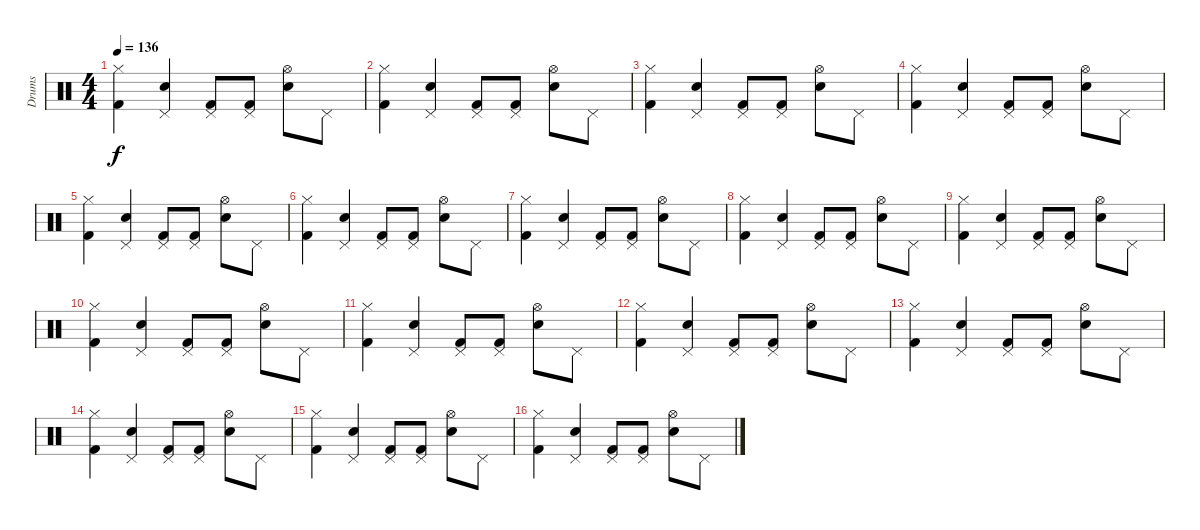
\track ("Drums" "Drums") {instrument percussion}
\staff {score}
\articulation defaults
\ts (4 4)
\tempo 136
\clef neutral
\ks c
("Hi-Hat (closed)" "Kick (hit) 2").4{dy f} ("Snare (hit) 2" "Pedal Hi-Hat (hit)").4 ("Pedal Hi-Hat (hit)" "Kick (hit) 2").8 ("Pedal Hi-Hat (hit)" "Kick (hit) 2").8 ("Snare (hit) 2" "Hi-Hat (open)").8 "Pedal Hi-Hat (hit)".8 |
("Hi-Hat (closed)" "Kick (hit) 2").4 ("Snare (hit) 2" "Pedal Hi-Hat (hit)").4 ("Pedal Hi-Hat (hit)" "Kick (hit) 2").8 ("Pedal Hi-Hat (hit)" "Kick (hit) 2").8 ("Snare (hit) 2" "Hi-Hat (open)").8 "Pedal Hi-Hat (hit)".8 |
("Hi-Hat (closed)" "Kick (hit) 2").4 ("Snare (hit) 2" "Pedal Hi-Hat (hit)").4 ("Pedal Hi-Hat (hit)" "Kick (hit) 2").8 ("Pedal Hi-Hat (hit)" "Kick (hit) 2").8 ("Snare (hit) 2" "Hi-Hat (open)").8 "Pedal Hi-Hat (hit)".8 |
("Hi-Hat (closed)" "Kick (hit) 2").4 ("Snare (hit) 2" "Pedal Hi-Hat (hit)").4 ("Pedal Hi-Hat (hit)" "Kick (hit) 2").8 ("Pedal Hi-Hat (hit)" "Kick (hit) 2").8 ("Snare (hit) 2" "Hi-Hat (open)").8 "Pedal Hi-Hat (hit)".8 |
("Hi-Hat (closed)" "Kick (hit) 2").4 ("Snare (hit) 2" "Pedal Hi-Hat (hit)").4 ("Pedal Hi-Hat (hit)" "Kick (hit) 2").8 ("Pedal Hi-Hat (hit)" "Kick (hit) 2").8 ("Snare (hit) 2" "Hi-Hat (open)").8 "Pedal Hi-Hat (hit)".8 |
("Hi-Hat (closed)" "Kick (hit) 2").4 ("Snare (hit) 2" "Pedal Hi-Hat (hit)").4 ("Pedal Hi-Hat (hit)" "Kick (hit) 2").8 ("Pedal Hi-Hat (hit)" "Kick (hit) 2").8 ("Snare (hit) 2" "Hi-Hat (open)").8 "Pedal Hi-Hat (hit)".8 |
("Hi-Hat (closed)" "Kick (hit) 2").4 ("Snare (hit) 2" "Pedal Hi-Hat (hit)").4 ("Pedal Hi-Hat (hit)" "Kick (hit) 2").8 ("Pedal Hi-Hat (hit)" "Kick (hit) 2").8 ("Snare (hit) 2" "Hi-Hat (open)").8 "Pedal Hi-Hat (hit)".8 |
("Hi-Hat (closed)" "Kick (hit) 2").4 ("Snare (hit) 2" "Pedal Hi-Hat (hit)").4 ("Pedal Hi-Hat (hit)" "Kick (hit) 2").8 ("Pedal Hi-Hat (hit)" "Kick (hit) 2").8 ("Snare (hit) 2" "Hi-Hat (open)").8 "Pedal Hi-Hat (hit)".8 |
("Hi-Hat (closed)" "Kick (hit) 2").4 ("Snare (hit) 2" "Pedal Hi-Hat (hit)").4 ("Pedal Hi-Hat (hit)" "Kick (hit) 2").8 ("Pedal Hi-Hat (hit)" "Kick (hit) 2").8 ("Snare (hit) 2" "Hi-Hat (open)").8 "Pedal Hi-Hat (hit)".8 |
("Hi-Hat (closed)" "Kick (hit) 2").4 ("Snare (hit) 2" "Pedal Hi-Hat (hit)").4 ("Pedal Hi-Hat (hit)" "Kick (hit) 2").8 ("Pedal Hi-Hat (hit)" "Kick (hit) 2").8 ("Snare (hit) 2" "Hi-Hat (open)").8 "Pedal Hi-Hat (hit)".8 |
("Hi-Hat (closed)" "Kick (hit) 2").4 ("Snare (hit) 2" "Pedal Hi-Hat (hit)").4 ("Pedal Hi-Hat (hit)" "Kick (hit) 2").8 ("Pedal Hi-Hat (hit)" "Kick (hit) 2").8 ("Snare (hit) 2" "Hi-Hat (open)").8 "Pedal Hi-Hat (hit)".8 |
("Hi-Hat (closed)" "Kick (hit) 2").4 ("Snare (hit) 2" "Pedal Hi-Hat (hit)").4 ("Pedal Hi-Hat (hit)" "Kick (hit) 2").8 ("Pedal Hi-Hat (hit)" "Kick (hit) 2").8 ("Snare (hit) 2" "Hi-Hat (open)").8 "Pedal Hi-Hat (hit)".8 |
("Hi-Hat (closed)" "Kick (hit) 2").4 ("Snare (hit) 2" "Pedal Hi-Hat (hit)").4 ("Pedal Hi-Hat (hit)" "Kick (hit) 2").8 ("Pedal Hi-Hat (hit)" "Kick (hit) 2").8 ("Snare (hit) 2" "Hi-Hat (open)").8 "Pedal Hi-Hat (hit)".8 |
("Hi-Hat (closed)" "Kick (hit) 2").4 ("Snare (hit) 2" "Pedal Hi-Hat (hit)").4 ("Pedal Hi-Hat (hit)" "Kick (hit) 2").8 ("Pedal Hi-Hat (hit)" "Kick (hit) 2").8 ("Snare (hit) 2" "Hi-Hat (open)").8 "Pedal Hi-Hat (hit)".8 |
("Hi-Hat (closed)" "Kick (hit) 2").4 ("Snare (hit) 2" "Pedal Hi-Hat (hit)").4 ("Pedal Hi-Hat (hit)" "Kick (hit) 2").8 ("Pedal Hi-Hat (hit)" "Kick (hit) 2").8 ("Snare (hit) 2" "Hi-Hat (open)").8 "Pedal Hi-Hat (hit)".8 |
("Hi-Hat (closed)" "Kick (hit) 2").4 ("Snare (hit) 2" "Pedal Hi-Hat (hit)").4 ("Pedal Hi-Hat (hit)" "Kick (hit) 2").8 ("Pedal Hi-Hat (hit)" "Kick (hit) 2").8 ("Snare (hit) 2" "Hi-Hat (open)").8 "Pedal Hi-Hat (hit)".8
